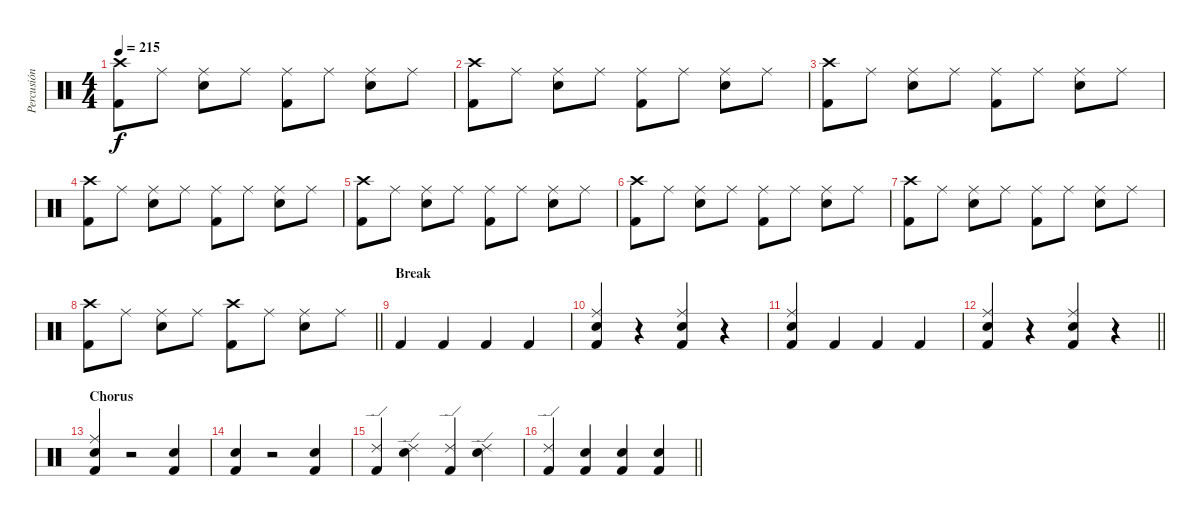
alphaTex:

\track ("Percusión" "Percusión") {instrument percussion}
\staff {score}
\articulation defaults
\ts (4 4)
\tempo 215
\clef neutral
\ks c
("Crash high (hit)" "Kick (hit) 2").8{dy f} "Ride (middle)".8 ("Ride (middle)" "Snare (hit) 2").8 "Ride (middle)".8 ("Ride (middle)" "Kick (hit) 2").8 "Ride (middle)".8 ("Ride (middle)" "Snare (hit) 2").8 "Ride (middle)".8 |
("Crash high (hit)" "Kick (hit) 2").8 "Ride (middle)".8 ("Ride (middle)" "Snare (hit) 2").8 "Ride (middle)".8 ("Ride (middle)" "Kick (hit) 2").8 "Ride (middle)".8 ("Ride (middle)" "Snare (hit) 2").8 "Ride (middle)".8 |
("Crash high (hit)" "Kick (hit) 2").8 "Ride (middle)".8 ("Ride (middle)" "Snare (hit) 2").8 "Ride (middle)".8 ("Ride (middle)" "Kick (hit) 2").8 "Ride (middle)".8 ("Ride (middle)" "Snare (hit) 2").8 "Ride (middle)".8 |
("Crash high (hit)" "Kick (hit) 2").8 "Ride (middle)".8 ("Ride (middle)" "Snare (hit) 2").8 "Ride (middle)".8 ("Ride (middle)" "Kick (hit) 2").8 "Ride (middle)".8 ("Ride (middle)" "Snare (hit) 2").8 "Ride (middle)".8 |
("Crash high (hit)" "Kick (hit) 2").8 "Ride (middle)".8 ("Ride (middle)" "Snare (hit) 2").8 "Ride (middle)".8 ("Ride (middle)" "Kick (hit) 2").8 "Ride (middle)".8 ("Ride (middle)" "Snare (hit) 2").8 "Ride (middle)".8 |
("Crash high (hit)" "Kick (hit) 2").8 "Ride (middle)".8 ("Ride (middle)" "Snare (hit) 2").8 "Ride (middle)".8 ("Ride (middle)" "Kick (hit) 2").8 "Ride (middle)".8 ("Ride (middle)" "Snare (hit) 2").8 "Ride (middle)".8 |
("Crash high (hit)" "Kick (hit) 2").8 "Ride (middle)".8 ("Ride (middle)" "Snare (hit) 2").8 "Ride (middle)".8 ("Ride (middle)" "Kick (hit) 2").8 "Ride (middle)".8 ("Ride (middle)" "Snare (hit) 2").8 "Ride (middle)".8 |
\barLineRight lightlight
("Crash high (hit)" "Kick (hit) 2").8 "Ride (middle)".8 ("Ride (middle)" "Snare (hit) 2").8 "Ride (middle)".8 ("Crash high (hit)" "Kick (hit) 2").8 "Ride (middle)".8 ("Ride (middle)" "Snare (hit) 2").8 "Ride (middle)".8 |
\section ("" "Break")
"Kick (hit) 2".4 "Kick (hit) 2".4 "Kick (hit) 2".4 "Kick (hit) 2".4 |
("Ride (middle)" "Snare (hit) 2" "Kick (hit) 2").4 r.4 ("Ride (middle)" "Snare (hit) 2" "Kick (hit) 2").4 r.4 |
("Ride (middle)" "Snare (hit) 2" "Kick (hit) 2").4 "Kick (hit) 2".4 "Kick (hit) 2".4 "Kick (hit) 2".4 |
\barLineRight lightlight
("Ride (middle)" "Snare (hit) 2" "Kick (hit) 2").4 r.4 ("Ride (middle)" "Snare (hit) 2" "Kick (hit) 2").4 r.4 |
\section ("" "Chorus")
("Ride (middle)" "Snare (hit) 2" "Kick (hit) 2").4 r.2 ("Snare (hit) 2" "Kick (hit) 2").4 |
("Snare (hit) 2" "Kick (hit) 2").4 r.2 ("Snare (hit) 2" "Kick (hit) 2").4 |
("Ride (edge) 2" "Kick (hit) 2").4 ("Ride (edge) 2" "Snare (hit) 2").4 ("Ride (edge) 2" "Kick (hit) 2").4 ("Ride (edge) 2" "Snare (hit) 2").4 |
\barLineRight lightlight
("Ride (edge) 2" "Kick (hit) 2").4 ("Snare (hit) 2" "Kick (hit) 2").4 ("Snare (hit) 2" "Kick (hit) 2").4 ("Snare (hit) 2" "Kick (hit) 2").4
